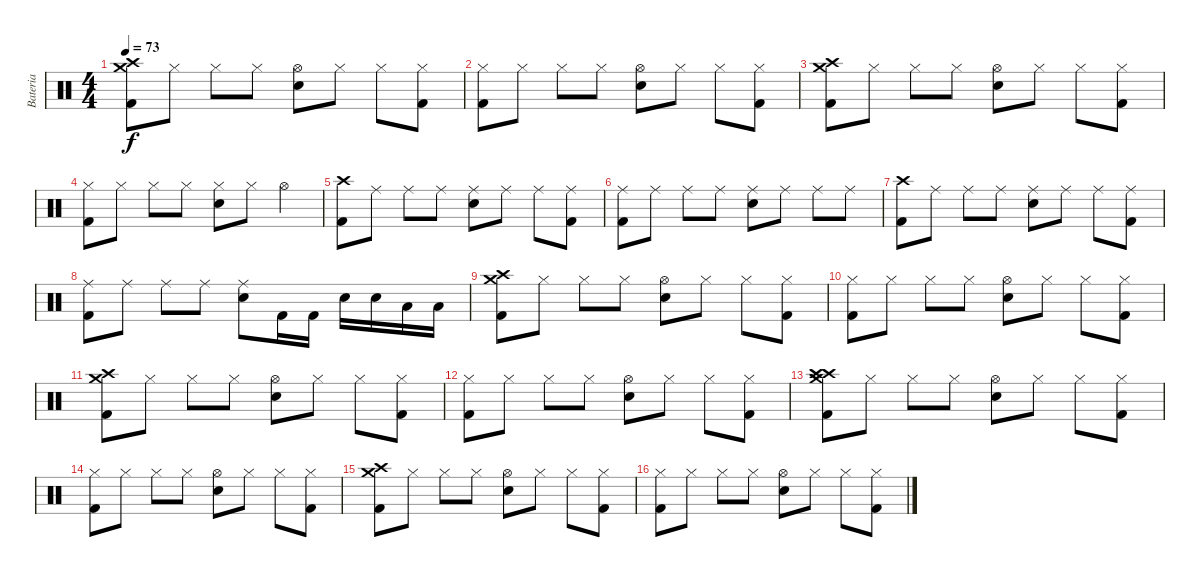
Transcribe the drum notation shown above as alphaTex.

\track ("Bateria" "Bateria") {instrument percussion}
\staff {score}
\articulation defaults
\ts (4 4)
\tempo 73
\clef neutral
\ks c
("Crash high (hit)" "Crash medium (hit)" "Kick (hit) 2").8{dy f} "Hi-Hat (closed)".8 "Hi-Hat (closed)".8 "Hi-Hat (closed)".8 ("Hi-Hat (open)" "Snare (hit) 2").8 "Hi-Hat (closed)".8 "Hi-Hat (closed)".8 ("Hi-Hat (closed)" "Kick (hit) 2").8 |
("Hi-Hat (closed)" "Kick (hit) 2").8 "Hi-Hat (closed)".8 "Hi-Hat (closed)".8 "Hi-Hat (closed)".8 ("Hi-Hat (open)" "Snare (hit) 2").8 "Hi-Hat (closed)".8 "Hi-Hat (closed)".8 ("Hi-Hat (closed)" "Kick (hit) 2").8 |
("Crash high (hit)" "Crash medium (hit)" "Kick (hit) 2").8 "Hi-Hat (closed)".8 "Hi-Hat (closed)".8 "Hi-Hat (closed)".8 ("Hi-Hat (open)" "Snare (hit) 2").8 "Hi-Hat (closed)".8 "Hi-Hat (closed)".8 ("Hi-Hat (closed)" "Kick (hit) 2").8 |
("Hi-Hat (closed)" "Kick (hit) 2").8 "Hi-Hat (closed)".8 "Hi-Hat (closed)".8 "Hi-Hat (closed)".8 ("Hi-Hat (closed)" "Snare (hit) 2").8 "Hi-Hat (closed)".8 "Hi-Hat (open)".4 |
("Crash high (hit)" "Kick (hit) 2").8 "Ride (middle)".8 "Ride (middle)".8 "Ride (middle)".8 ("Ride (middle)" "Snare (hit) 2").8 "Ride (middle)".8 "Ride (middle)".8 ("Ride (middle)" "Kick (hit) 2").8 |
("Ride (middle)" "Kick (hit) 2").8 "Ride (middle)".8 "Ride (middle)".8 "Ride (middle)".8 ("Ride (middle)" "Snare (hit) 2").8 "Ride (middle)".8 "Ride (middle)".8 "Ride (middle)".8 |
("Crash high (hit)" "Kick (hit) 2").8 "Ride (middle)".8 "Ride (middle)".8 "Ride (middle)".8 ("Ride (middle)" "Snare (hit) 2").8 "Ride (middle)".8 "Ride (middle)".8 ("Ride (middle)" "Kick (hit) 2").8 |
("Ride (middle)" "Kick (hit) 2").8 "Ride (middle)".8 "Ride (middle)".8 "Ride (middle)".8 ("Ride (middle)" "Snare (hit) 2").8 "Kick (hit) 2".16 "Kick (hit) 2".16 "Snare (hit) 2".16 "Snare (hit) 2".16 "Low Tom (hit)".16 "Low Tom (hit)".16 |
("Crash high (hit)" "Crash medium (hit)" "Kick (hit) 2").8 "Hi-Hat (closed)".8 "Hi-Hat (closed)".8 "Hi-Hat (closed)".8 ("Hi-Hat (open)" "Snare (hit) 2").8 "Hi-Hat (closed)".8 "Hi-Hat (closed)".8 ("Hi-Hat (closed)" "Kick (hit) 2").8 |
("Hi-Hat (closed)" "Kick (hit) 2").8 "Hi-Hat (closed)".8 "Hi-Hat (closed)".8 "Hi-Hat (closed)".8 ("Hi-Hat (open)" "Snare (hit) 2").8 "Hi-Hat (closed)".8 "Hi-Hat (closed)".8 ("Hi-Hat (closed)" "Kick (hit) 2").8 |
("Crash high (hit)" "Crash medium (hit)" "Kick (hit) 2").8 "Hi-Hat (closed)".8 "Hi-Hat (closed)".8 "Hi-Hat (closed)".8 ("Hi-Hat (open)" "Snare (hit) 2").8 "Hi-Hat (closed)".8 "Hi-Hat (closed)".8 ("Hi-Hat (closed)" "Kick (hit) 2").8 |
("Hi-Hat (closed)" "Kick (hit) 2").8 "Hi-Hat (closed)".8 "Hi-Hat (closed)".8 "Hi-Hat (closed)".8 ("Hi-Hat (open)" "Snare (hit) 2").8 "Hi-Hat (closed)".8 "Hi-Hat (closed)".8 ("Hi-Hat (closed)" "Kick (hit) 2").8 |
("Crash high (hit)" "Crash high (hit)" "Crash medium (hit)" "Kick (hit) 2").8 "Hi-Hat (closed)".8 "Hi-Hat (closed)".8 "Hi-Hat (closed)".8 ("Hi-Hat (open)" "Snare (hit) 2").8 "Hi-Hat (closed)".8 "Hi-Hat (closed)".8 ("Hi-Hat (closed)" "Kick (hit) 2").8 |
("Hi-Hat (closed)" "Kick (hit) 2").8 "Hi-Hat (closed)".8 "Hi-Hat (closed)".8 "Hi-Hat (closed)".8 ("Hi-Hat (open)" "Snare (hit) 2").8 "Hi-Hat (closed)".8 "Hi-Hat (closed)".8 ("Hi-Hat (closed)" "Kick (hit) 2").8 |
("Crash high (hit)" "Crash medium (hit)" "Kick (hit) 2").8 "Hi-Hat (closed)".8 "Hi-Hat (closed)".8 "Hi-Hat (closed)".8 ("Hi-Hat (open)" "Snare (hit) 2").8 "Hi-Hat (closed)".8 "Hi-Hat (closed)".8 ("Hi-Hat (closed)" "Kick (hit) 2").8 |
("Hi-Hat (closed)" "Kick (hit) 2").8 "Hi-Hat (closed)".8 "Hi-Hat (closed)".8 "Hi-Hat (closed)".8 ("Hi-Hat (open)" "Snare (hit) 2").8 "Hi-Hat (closed)".8 "Hi-Hat (closed)".8 ("Hi-Hat (closed)" "Kick (hit) 2").8
